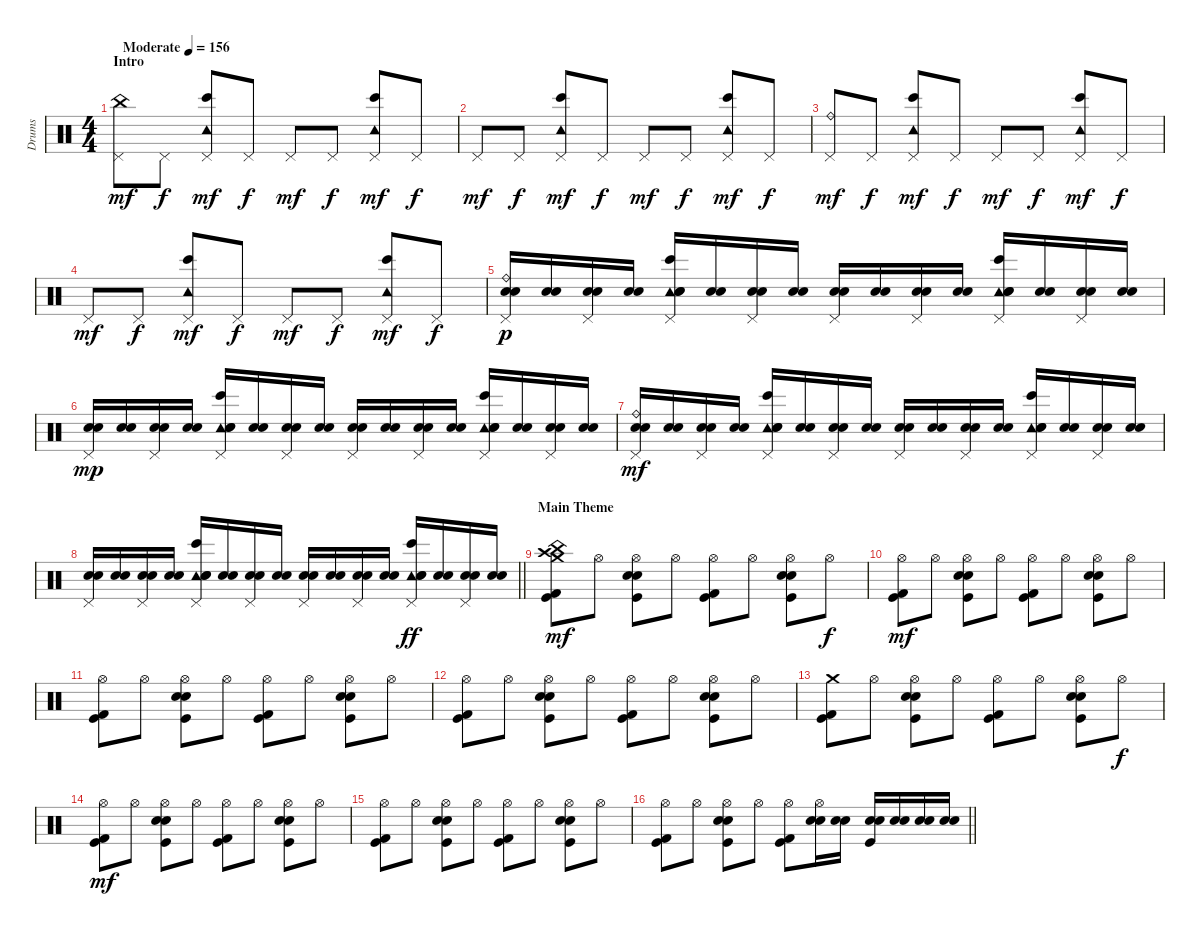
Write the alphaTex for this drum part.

\track ("Drums" "Drums") {instrument percussion}
\staff {score}
\articulation defaults
\ts (4 4)
\section ("" "Intro")
\tempo (156 "Moderate")
\clef neutral
\ks c
("China (hit)" "Pedal Hi-Hat (hit)").8{dy mf} "Pedal Hi-Hat (hit)".8{dy f} ("Bongo High (hit)" "Tambourine (hit)" "Pedal Hi-Hat (hit)").8{dy mf} "Pedal Hi-Hat (hit)".8{dy f} "Pedal Hi-Hat (hit)".8{dy mf} "Pedal Hi-Hat (hit)".8{dy f} ("Bongo High (hit)" "Tambourine (hit)" "Pedal Hi-Hat (hit)").8{dy mf} "Pedal Hi-Hat (hit)".8{dy f} |
"Pedal Hi-Hat (hit)".8{dy mf} "Pedal Hi-Hat (hit)".8{dy f} ("Bongo High (hit)" "Tambourine (hit)" "Pedal Hi-Hat (hit)").8{dy mf} "Pedal Hi-Hat (hit)".8{dy f} "Pedal Hi-Hat (hit)".8{dy mf} "Pedal Hi-Hat (hit)".8{dy f} ("Bongo High (hit)" "Tambourine (hit)" "Pedal Hi-Hat (hit)").8{dy mf} "Pedal Hi-Hat (hit)".8{dy f} |
("Ride (bell)" "Pedal Hi-Hat (hit)").8{dy mf} "Pedal Hi-Hat (hit)".8{dy f} ("Bongo High (hit)" "Tambourine (hit)" "Pedal Hi-Hat (hit)").8{dy mf} "Pedal Hi-Hat (hit)".8{dy f} "Pedal Hi-Hat (hit)".8{dy mf} "Pedal Hi-Hat (hit)".8{dy f} ("Bongo High (hit)" "Tambourine (hit)" "Pedal Hi-Hat (hit)").8{dy mf} "Pedal Hi-Hat (hit)".8{dy f} |
"Pedal Hi-Hat (hit)".8{dy mf} "Pedal Hi-Hat (hit)".8{dy f} ("Bongo High (hit)" "Tambourine (hit)" "Pedal Hi-Hat (hit)").8{dy mf} "Pedal Hi-Hat (hit)".8{dy f} "Pedal Hi-Hat (hit)".8{dy mf} "Pedal Hi-Hat (hit)".8{dy f} ("Bongo High (hit)" "Tambourine (hit)" "Pedal Hi-Hat (hit)").8{dy mf} "Pedal Hi-Hat (hit)".8{dy f} |
("Ride (bell)" "Pedal Hi-Hat (hit)" "Snare (hit) 2" "Electric Snare (hit)").16{dy p} ("Snare (hit) 2" "Electric Snare (hit)").16 ("Pedal Hi-Hat (hit)" "Snare (hit) 2" "Electric Snare (hit)").16 ("Snare (hit) 2" "Electric Snare (hit)").16 ("Bongo High (hit)" "Tambourine (hit)" "Pedal Hi-Hat (hit)" "Snare (hit) 2" "Electric Snare (hit)").16 ("Snare (hit) 2" "Electric Snare (hit)").16 ("Pedal Hi-Hat (hit)" "Snare (hit) 2" "Electric Snare (hit)").16 ("Snare (hit) 2" "Electric Snare (hit)").16 ("Pedal Hi-Hat (hit)" "Snare (hit) 2" "Electric Snare (hit)").16 ("Snare (hit) 2" "Electric Snare (hit)").16 ("Pedal Hi-Hat (hit)" "Snare (hit) 2" "Electric Snare (hit)").16 ("Snare (hit) 2" "Electric Snare (hit)").16 ("Bongo High (hit)" "Tambourine (hit)" "Pedal Hi-Hat (hit)" "Snare (hit) 2" "Electric Snare (hit)").16 ("Snare (hit) 2" "Electric Snare (hit)").16 ("Pedal Hi-Hat (hit)" "Snare (hit) 2" "Electric Snare (hit)").16 ("Snare (hit) 2" "Electric Snare (hit)").16 |
("Pedal Hi-Hat (hit)" "Snare (hit) 2" "Electric Snare (hit)").16{dy mp} ("Snare (hit) 2" "Electric Snare (hit)").16 ("Pedal Hi-Hat (hit)" "Snare (hit) 2" "Electric Snare (hit)").16 ("Snare (hit) 2" "Electric Snare (hit)").16 ("Bongo High (hit)" "Tambourine (hit)" "Pedal Hi-Hat (hit)" "Snare (hit) 2" "Electric Snare (hit)").16 ("Snare (hit) 2" "Electric Snare (hit)").16 ("Pedal Hi-Hat (hit)" "Snare (hit) 2" "Electric Snare (hit)").16 ("Snare (hit) 2" "Electric Snare (hit)").16 ("Pedal Hi-Hat (hit)" "Snare (hit) 2" "Electric Snare (hit)").16 ("Snare (hit) 2" "Electric Snare (hit)").16 ("Pedal Hi-Hat (hit)" "Snare (hit) 2" "Electric Snare (hit)").16 ("Snare (hit) 2" "Electric Snare (hit)").16 ("Bongo High (hit)" "Tambourine (hit)" "Pedal Hi-Hat (hit)" "Snare (hit) 2" "Electric Snare (hit)").16 ("Snare (hit) 2" "Electric Snare (hit)").16 ("Pedal Hi-Hat (hit)" "Snare (hit) 2" "Electric Snare (hit)").16 ("Snare (hit) 2" "Electric Snare (hit)").16 |
("Ride (bell)" "Pedal Hi-Hat (hit)" "Snare (hit) 2" "Electric Snare (hit)").16{dy mf} ("Snare (hit) 2" "Electric Snare (hit)").16 ("Pedal Hi-Hat (hit)" "Snare (hit) 2" "Electric Snare (hit)").16 ("Snare (hit) 2" "Electric Snare (hit)").16 ("Bongo High (hit)" "Tambourine (hit)" "Pedal Hi-Hat (hit)" "Snare (hit) 2" "Electric Snare (hit)").16 ("Snare (hit) 2" "Electric Snare (hit)").16 ("Pedal Hi-Hat (hit)" "Snare (hit) 2" "Electric Snare (hit)").16 ("Snare (hit) 2" "Electric Snare (hit)").16 ("Pedal Hi-Hat (hit)" "Snare (hit) 2" "Electric Snare (hit)").16 ("Snare (hit) 2" "Electric Snare (hit)").16 ("Pedal Hi-Hat (hit)" "Snare (hit) 2" "Electric Snare (hit)").16 ("Snare (hit) 2" "Electric Snare (hit)").16 ("Bongo High (hit)" "Tambourine (hit)" "Pedal Hi-Hat (hit)" "Snare (hit) 2" "Electric Snare (hit)").16 ("Snare (hit) 2" "Electric Snare (hit)").16 ("Pedal Hi-Hat (hit)" "Snare (hit) 2" "Electric Snare (hit)").16 ("Snare (hit) 2" "Electric Snare (hit)").16 |
\barLineRight lightlight
("Pedal Hi-Hat (hit)" "Snare (hit) 2" "Electric Snare (hit)").16 ("Snare (hit) 2" "Electric Snare (hit)").16 ("Pedal Hi-Hat (hit)" "Snare (hit) 2" "Electric Snare (hit)").16 ("Snare (hit) 2" "Electric Snare (hit)").16 ("Bongo High (hit)" "Tambourine (hit)" "Pedal Hi-Hat (hit)" "Snare (hit) 2" "Electric Snare (hit)").16 ("Snare (hit) 2" "Electric Snare (hit)").16 ("Pedal Hi-Hat (hit)" "Snare (hit) 2" "Electric Snare (hit)").16 ("Snare (hit) 2" "Electric Snare (hit)").16 ("Pedal Hi-Hat (hit)" "Snare (hit) 2" "Electric Snare (hit)").16 ("Snare (hit) 2" "Electric Snare (hit)").16 ("Pedal Hi-Hat (hit)" "Snare (hit) 2" "Electric Snare (hit)").16 ("Snare (hit) 2" "Electric Snare (hit)").16 ("Bongo High (hit)" "Tambourine (hit)" "Pedal Hi-Hat (hit)" "Snare (hit) 2" "Electric Snare (hit)").16{dy ff} ("Snare (hit) 2" "Electric Snare (hit)").16 ("Pedal Hi-Hat (hit)" "Snare (hit) 2" "Electric Snare (hit)").16 ("Snare (hit) 2" "Electric Snare (hit)").16 |
\section ("" "Main Theme")
("Crash high (hit)" "Crash medium (hit)" "China (hit)" "Kick (hit) 2" "Kick (hit)").8{dy mf} "Hi-Hat (open)".8 ("Hi-Hat (open)" "Snare (hit) 2" "Electric Snare (hit)" "Kick (hit)").8 "Hi-Hat (open)".8 ("Hi-Hat (open)" "Kick (hit) 2" "Kick (hit)").8 "Hi-Hat (open)".8 ("Hi-Hat (open)" "Snare (hit) 2" "Electric Snare (hit)" "Kick (hit)").8 "Hi-Hat (open)".8{dy f} |
("Hi-Hat (open)" "Kick (hit) 2" "Kick (hit)").8{dy mf} "Hi-Hat (open)".8 ("Hi-Hat (open)" "Snare (hit) 2" "Electric Snare (hit)" "Kick (hit)").8 "Hi-Hat (open)".8 ("Hi-Hat (open)" "Kick (hit) 2" "Kick (hit)").8 "Hi-Hat (open)".8 ("Hi-Hat (open)" "Snare (hit) 2" "Electric Snare (hit)" "Kick (hit)").8 "Hi-Hat (open)".8 |
("Hi-Hat (open)" "Kick (hit) 2" "Kick (hit)").8 "Hi-Hat (open)".8 ("Hi-Hat (open)" "Snare (hit) 2" "Electric Snare (hit)" "Kick (hit)").8 "Hi-Hat (open)".8 ("Hi-Hat (open)" "Kick (hit) 2" "Kick (hit)").8 "Hi-Hat (open)".8 ("Hi-Hat (open)" "Snare (hit) 2" "Electric Snare (hit)" "Kick (hit)").8 "Hi-Hat (open)".8 |
("Hi-Hat (open)" "Kick (hit) 2" "Kick (hit)").8 "Hi-Hat (open)".8 ("Hi-Hat (open)" "Snare (hit) 2" "Electric Snare (hit)" "Kick (hit)").8 "Hi-Hat (open)".8 ("Hi-Hat (open)" "Kick (hit) 2" "Kick (hit)").8 "Hi-Hat (open)".8 ("Hi-Hat (open)" "Snare (hit) 2" "Electric Snare (hit)" "Kick (hit)").8 "Hi-Hat (open)".8 |
("Crash medium (hit)" "Kick (hit) 2" "Kick (hit)").8 "Hi-Hat (open)".8 ("Hi-Hat (open)" "Snare (hit) 2" "Electric Snare (hit)" "Kick (hit)").8 "Hi-Hat (open)".8 ("Hi-Hat (open)" "Kick (hit) 2" "Kick (hit)").8 "Hi-Hat (open)".8 ("Hi-Hat (open)" "Snare (hit) 2" "Electric Snare (hit)" "Kick (hit)").8 "Hi-Hat (open)".8{dy f} |
("Hi-Hat (open)" "Kick (hit) 2" "Kick (hit)").8{dy mf} "Hi-Hat (open)".8 ("Hi-Hat (open)" "Snare (hit) 2" "Electric Snare (hit)" "Kick (hit)").8 "Hi-Hat (open)".8 ("Hi-Hat (open)" "Kick (hit) 2" "Kick (hit)").8 "Hi-Hat (open)".8 ("Hi-Hat (open)" "Snare (hit) 2" "Electric Snare (hit)" "Kick (hit)").8 "Hi-Hat (open)".8 |
("Hi-Hat (open)" "Kick (hit) 2" "Kick (hit)").8 "Hi-Hat (open)".8 ("Hi-Hat (open)" "Snare (hit) 2" "Electric Snare (hit)" "Kick (hit)").8 "Hi-Hat (open)".8 ("Hi-Hat (open)" "Kick (hit) 2" "Kick (hit)").8 "Hi-Hat (open)".8 ("Hi-Hat (open)" "Snare (hit) 2" "Electric Snare (hit)" "Kick (hit)").8 "Hi-Hat (open)".8 |
\barLineRight lightlight
("Hi-Hat (open)" "Kick (hit) 2" "Kick (hit)").8 "Hi-Hat (open)".8 ("Hi-Hat (open)" "Snare (hit) 2" "Electric Snare (hit)" "Kick (hit)").8 "Hi-Hat (open)".8 ("Hi-Hat (open)" "Kick (hit) 2" "Kick (hit)").8 ("Hi-Hat (open)" "Snare (hit) 2" "Electric Snare (hit)").16 ("Snare (hit) 2" "Electric Snare (hit)").16 ("Snare (hit) 2" "Electric Snare (hit)" "Kick (hit)").16 ("Snare (hit) 2" "Electric Snare (hit)").16 ("Snare (hit) 2" "Electric Snare (hit)").16 ("Snare (hit) 2" "Electric Snare (hit)").16
